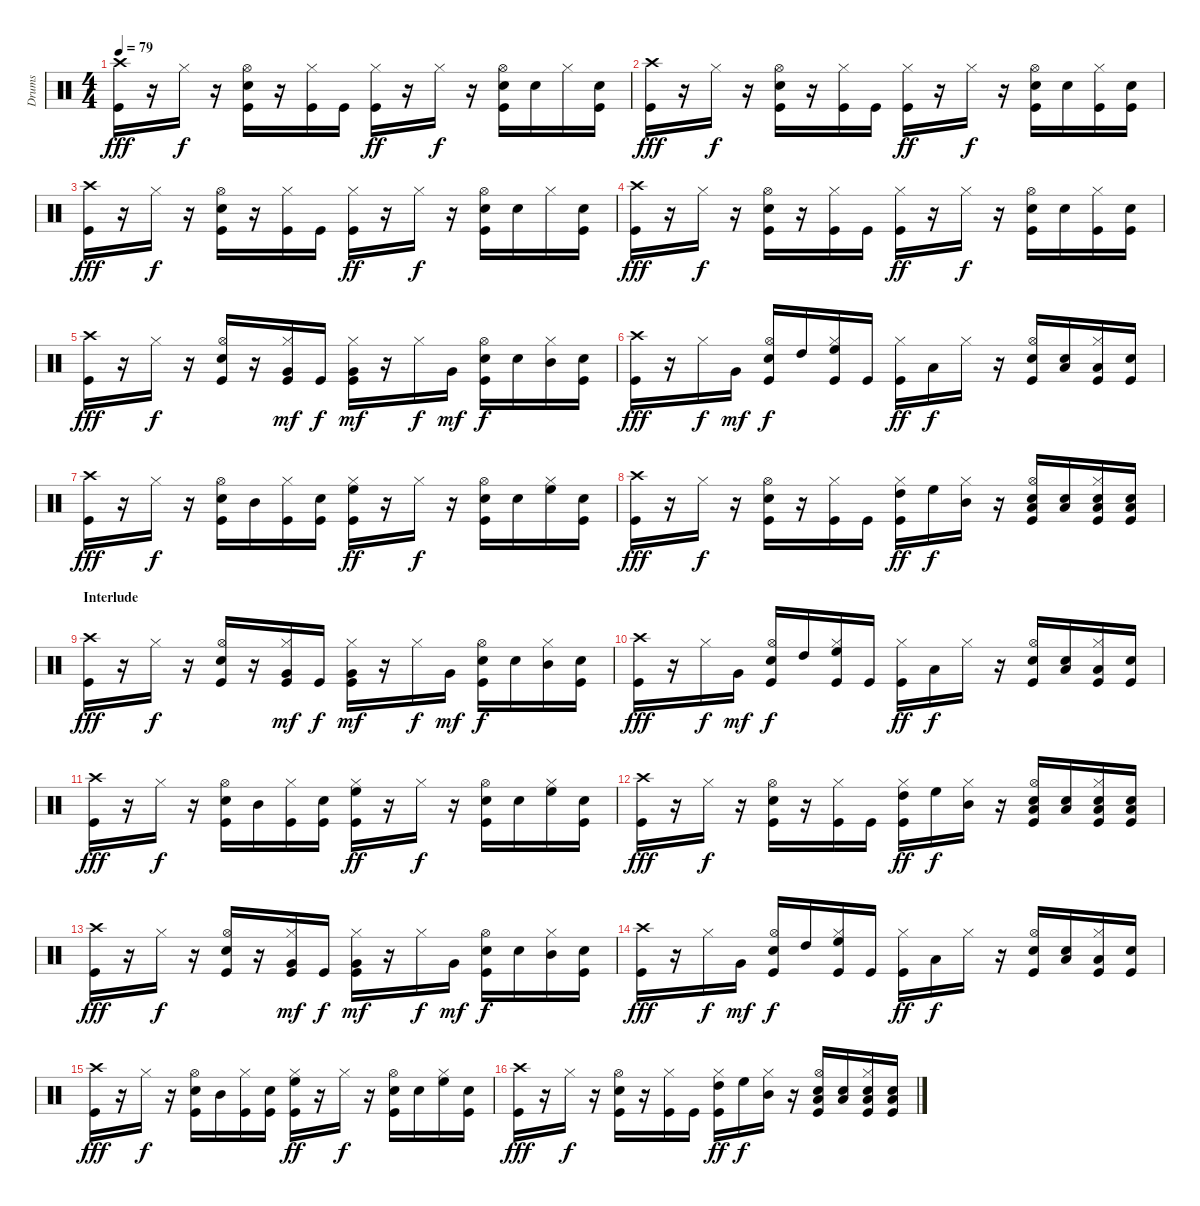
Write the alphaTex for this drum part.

\track ("Drums" "Drums") {instrument percussion}
\staff {score}
\articulation defaults
\ts (4 4)
\tempo 79
\clef neutral
\ks c
("Crash high (hit)" "Kick (hit)").16{dy fff volume 11} r.16 "Hi-Hat (closed)".16{dy f} r.16 ("Hi-Hat (open)" "Electric Snare (hit)" "Kick (hit)").16 r.16 ("Hi-Hat (closed)" "Kick (hit)").16 "Kick (hit)".16 ("Hi-Hat (closed)" "Kick (hit)").16{dy ff} r.16 "Hi-Hat (closed)".16{dy f} r.16 ("Hi-Hat (open)" "Electric Snare (hit)" "Kick (hit)").16 "Electric Snare (hit)".16 "Hi-Hat (closed)".16 ("Electric Snare (hit)" "Kick (hit)").16 |
("Crash high (hit)" "Kick (hit)").16{dy fff} r.16 "Hi-Hat (closed)".16{dy f} r.16 ("Hi-Hat (open)" "Electric Snare (hit)" "Kick (hit)").16 r.16 ("Hi-Hat (closed)" "Kick (hit)").16 "Kick (hit)".16 ("Hi-Hat (closed)" "Kick (hit)").16{dy ff} r.16 "Hi-Hat (closed)".16{dy f} r.16 ("Hi-Hat (open)" "Electric Snare (hit)" "Kick (hit)").16 "Electric Snare (hit)".16 ("Hi-Hat (closed)" "Kick (hit)").16 ("Electric Snare (hit)" "Kick (hit)").16 |
("Crash high (hit)" "Kick (hit)").16{dy fff volume 11} r.16 "Hi-Hat (closed)".16{dy f} r.16 ("Hi-Hat (open)" "Electric Snare (hit)" "Kick (hit)").16 r.16 ("Hi-Hat (closed)" "Kick (hit)").16 "Kick (hit)".16 ("Hi-Hat (closed)" "Kick (hit)").16{dy ff} r.16 "Hi-Hat (closed)".16{dy f} r.16 ("Hi-Hat (open)" "Electric Snare (hit)" "Kick (hit)").16 "Electric Snare (hit)".16 "Hi-Hat (closed)".16 ("Electric Snare (hit)" "Kick (hit)").16 |
("Crash high (hit)" "Kick (hit)").16{dy fff} r.16 "Hi-Hat (closed)".16{dy f} r.16 ("Hi-Hat (open)" "Electric Snare (hit)" "Kick (hit)").16 r.16 ("Hi-Hat (closed)" "Kick (hit)").16 "Kick (hit)".16 ("Hi-Hat (closed)" "Kick (hit)").16{dy ff} r.16 "Hi-Hat (closed)".16{dy f} r.16 ("Hi-Hat (open)" "Electric Snare (hit)" "Kick (hit)").16 "Electric Snare (hit)".16 ("Hi-Hat (closed)" "Kick (hit)").16 ("Electric Snare (hit)" "Kick (hit)").16 |
("Crash high (hit)" "Kick (hit)").16{dy fff volume 11} r.16 "Hi-Hat (closed)".16{dy f} r.16 ("Hi-Hat (open)" "Electric Snare (hit)" "Kick (hit)").16 r.16 ("Hi-Hat (closed)" "Very Low Tom (hit)" "Kick (hit)").16{dy mf} "Kick (hit)".16{dy f} ("Hi-Hat (closed)" "Very Low Tom (hit)" "Kick (hit)").16{dy mf} r.16 "Hi-Hat (closed)".16{dy f} "Very Low Tom (hit)".16{dy mf} ("Hi-Hat (open)" "Electric Snare (hit)" "Kick (hit)").16{dy f} "Electric Snare (hit)".16 ("Hi-Hat (closed)" "Mid Tom (hit)").16 ("Electric Snare (hit)" "Kick (hit)").16 |
("Crash high (hit)" "Kick (hit)").16{dy fff} r.16 "Hi-Hat (closed)".16{dy f} "Very Low Tom (hit)".16{dy mf} ("Hi-Hat (open)" "Electric Snare (hit)" "Kick (hit)").16{dy f} "High Tom (hit)".16 ("Hi-Hat (closed)" "High Floor Tom (hit)" "Kick (hit)").16 "Kick (hit)".16 ("Hi-Hat (closed)" "Kick (hit)").16{dy ff} "Low Tom (hit)".16{dy f} "Hi-Hat (closed)".16 r.16 ("Hi-Hat (open)" "Electric Snare (hit)" "Kick (hit)").16 ("Low Tom (hit)" "Electric Snare (hit)").16 ("Hi-Hat (closed)" "Low Tom (hit)" "Kick (hit)").16 ("Electric Snare (hit)" "Kick (hit)").16 |
("Crash high (hit)" "Kick (hit)").16{dy fff volume 11} r.16 "Hi-Hat (closed)".16{dy f} r.16 ("Hi-Hat (open)" "Electric Snare (hit)" "Kick (hit)").16 "Mid Tom (hit)".16 ("Hi-Hat (closed)" "Kick (hit)").16 ("Electric Snare (hit)" "Kick (hit)").16 ("Hi-Hat (closed)" "High Floor Tom (hit)" "Kick (hit)").16{dy ff} r.16 "Hi-Hat (closed)".16{dy f} r.16 ("Hi-Hat (open)" "Electric Snare (hit)" "Kick (hit)").16 "Electric Snare (hit)".16 ("Hi-Hat (closed)" "High Floor Tom (hit)").16 ("Electric Snare (hit)" "Kick (hit)").16 |
("Crash high (hit)" "Kick (hit)").16{dy fff} r.16 "Hi-Hat (closed)".16{dy f} r.16 ("Hi-Hat (open)" "Electric Snare (hit)" "Kick (hit)").16 r.16 ("Hi-Hat (closed)" "Kick (hit)").16 "Kick (hit)".16 ("Hi-Hat (closed)" "High Tom (hit)" "Kick (hit)").16{dy ff} "High Floor Tom (hit)".16{dy f} ("Hi-Hat (closed)" "Mid Tom (hit)").16 r.16 ("Hi-Hat (open)" "Electric Snare (hit)" "Low Floor Tom (hit)" "Kick (hit)").16 ("Electric Snare (hit)" "Low Floor Tom (hit)").16 ("Hi-Hat (closed)" "Electric Snare (hit)" "Low Floor Tom (hit)" "Kick (hit)").16 ("Electric Snare (hit)" "Low Floor Tom (hit)" "Kick (hit)").16 |
\section ("" "Interlude")
("Crash high (hit)" "Kick (hit)").16{dy fff volume 11} r.16 "Hi-Hat (closed)".16{dy f} r.16 ("Hi-Hat (open)" "Electric Snare (hit)" "Kick (hit)").16 r.16 ("Hi-Hat (closed)" "Very Low Tom (hit)" "Kick (hit)").16{dy mf} "Kick (hit)".16{dy f} ("Hi-Hat (closed)" "Very Low Tom (hit)" "Kick (hit)").16{dy mf} r.16 "Hi-Hat (closed)".16{dy f} "Very Low Tom (hit)".16{dy mf} ("Hi-Hat (open)" "Electric Snare (hit)" "Kick (hit)").16{dy f} "Electric Snare (hit)".16 ("Hi-Hat (closed)" "Mid Tom (hit)").16 ("Electric Snare (hit)" "Kick (hit)").16 |
("Crash high (hit)" "Kick (hit)").16{dy fff} r.16 "Hi-Hat (closed)".16{dy f} "Very Low Tom (hit)".16{dy mf} ("Hi-Hat (open)" "Electric Snare (hit)" "Kick (hit)").16{dy f} "High Tom (hit)".16 ("Hi-Hat (closed)" "High Floor Tom (hit)" "Kick (hit)").16 "Kick (hit)".16 ("Hi-Hat (closed)" "Kick (hit)").16{dy ff} "Low Tom (hit)".16{dy f} "Hi-Hat (closed)".16 r.16 ("Hi-Hat (open)" "Electric Snare (hit)" "Kick (hit)").16 ("Low Tom (hit)" "Electric Snare (hit)").16 ("Hi-Hat (closed)" "Low Tom (hit)" "Kick (hit)").16 ("Electric Snare (hit)" "Kick (hit)").16 |
("Crash high (hit)" "Kick (hit)").16{dy fff volume 11} r.16 "Hi-Hat (closed)".16{dy f} r.16 ("Hi-Hat (open)" "Electric Snare (hit)" "Kick (hit)").16 "Mid Tom (hit)".16 ("Hi-Hat (closed)" "Kick (hit)").16 ("Electric Snare (hit)" "Kick (hit)").16 ("Hi-Hat (closed)" "High Floor Tom (hit)" "Kick (hit)").16{dy ff} r.16 "Hi-Hat (closed)".16{dy f} r.16 ("Hi-Hat (open)" "Electric Snare (hit)" "Kick (hit)").16 "Electric Snare (hit)".16 ("Hi-Hat (closed)" "High Floor Tom (hit)").16 ("Electric Snare (hit)" "Kick (hit)").16 |
("Crash high (hit)" "Kick (hit)").16{dy fff} r.16 "Hi-Hat (closed)".16{dy f} r.16 ("Hi-Hat (open)" "Electric Snare (hit)" "Kick (hit)").16 r.16 ("Hi-Hat (closed)" "Kick (hit)").16 "Kick (hit)".16 ("Hi-Hat (closed)" "High Tom (hit)" "Kick (hit)").16{dy ff} "High Floor Tom (hit)".16{dy f} ("Hi-Hat (closed)" "Mid Tom (hit)").16 r.16 ("Hi-Hat (open)" "Electric Snare (hit)" "Low Floor Tom (hit)" "Kick (hit)").16 ("Electric Snare (hit)" "Low Floor Tom (hit)").16 ("Hi-Hat (closed)" "Electric Snare (hit)" "Low Floor Tom (hit)" "Kick (hit)").16 ("Electric Snare (hit)" "Low Floor Tom (hit)" "Kick (hit)").16 |
("Crash high (hit)" "Kick (hit)").16{dy fff volume 11} r.16 "Hi-Hat (closed)".16{dy f} r.16 ("Hi-Hat (open)" "Electric Snare (hit)" "Kick (hit)").16 r.16 ("Hi-Hat (closed)" "Very Low Tom (hit)" "Kick (hit)").16{dy mf} "Kick (hit)".16{dy f} ("Hi-Hat (closed)" "Very Low Tom (hit)" "Kick (hit)").16{dy mf} r.16 "Hi-Hat (closed)".16{dy f} "Very Low Tom (hit)".16{dy mf} ("Hi-Hat (open)" "Electric Snare (hit)" "Kick (hit)").16{dy f} "Electric Snare (hit)".16 ("Hi-Hat (closed)" "Mid Tom (hit)").16 ("Electric Snare (hit)" "Kick (hit)").16 |
("Crash high (hit)" "Kick (hit)").16{dy fff} r.16 "Hi-Hat (closed)".16{dy f} "Very Low Tom (hit)".16{dy mf} ("Hi-Hat (open)" "Electric Snare (hit)" "Kick (hit)").16{dy f} "High Tom (hit)".16 ("Hi-Hat (closed)" "High Floor Tom (hit)" "Kick (hit)").16 "Kick (hit)".16 ("Hi-Hat (closed)" "Kick (hit)").16{dy ff} "Low Tom (hit)".16{dy f} "Hi-Hat (closed)".16 r.16 ("Hi-Hat (open)" "Electric Snare (hit)" "Kick (hit)").16 ("Low Tom (hit)" "Electric Snare (hit)").16 ("Hi-Hat (closed)" "Low Tom (hit)" "Kick (hit)").16 ("Electric Snare (hit)" "Kick (hit)").16 |
("Crash high (hit)" "Kick (hit)").16{dy fff volume 11} r.16 "Hi-Hat (closed)".16{dy f} r.16 ("Hi-Hat (open)" "Electric Snare (hit)" "Kick (hit)").16 "Mid Tom (hit)".16 ("Hi-Hat (closed)" "Kick (hit)").16 ("Electric Snare (hit)" "Kick (hit)").16 ("Hi-Hat (closed)" "High Floor Tom (hit)" "Kick (hit)").16{dy ff} r.16 "Hi-Hat (closed)".16{dy f} r.16 ("Hi-Hat (open)" "Electric Snare (hit)" "Kick (hit)").16 "Electric Snare (hit)".16 ("Hi-Hat (closed)" "High Floor Tom (hit)").16 ("Electric Snare (hit)" "Kick (hit)").16 |
("Crash high (hit)" "Kick (hit)").16{dy fff} r.16 "Hi-Hat (closed)".16{dy f} r.16 ("Hi-Hat (open)" "Electric Snare (hit)" "Kick (hit)").16 r.16 ("Hi-Hat (closed)" "Kick (hit)").16 "Kick (hit)".16 ("Hi-Hat (closed)" "High Tom (hit)" "Kick (hit)").16{dy ff} "High Floor Tom (hit)".16{dy f} ("Hi-Hat (closed)" "Mid Tom (hit)").16 r.16 ("Hi-Hat (open)" "Electric Snare (hit)" "Low Floor Tom (hit)" "Kick (hit)").16 ("Electric Snare (hit)" "Low Floor Tom (hit)").16 ("Hi-Hat (closed)" "Electric Snare (hit)" "Low Floor Tom (hit)" "Kick (hit)").16 ("Electric Snare (hit)" "Low Floor Tom (hit)" "Kick (hit)").16
